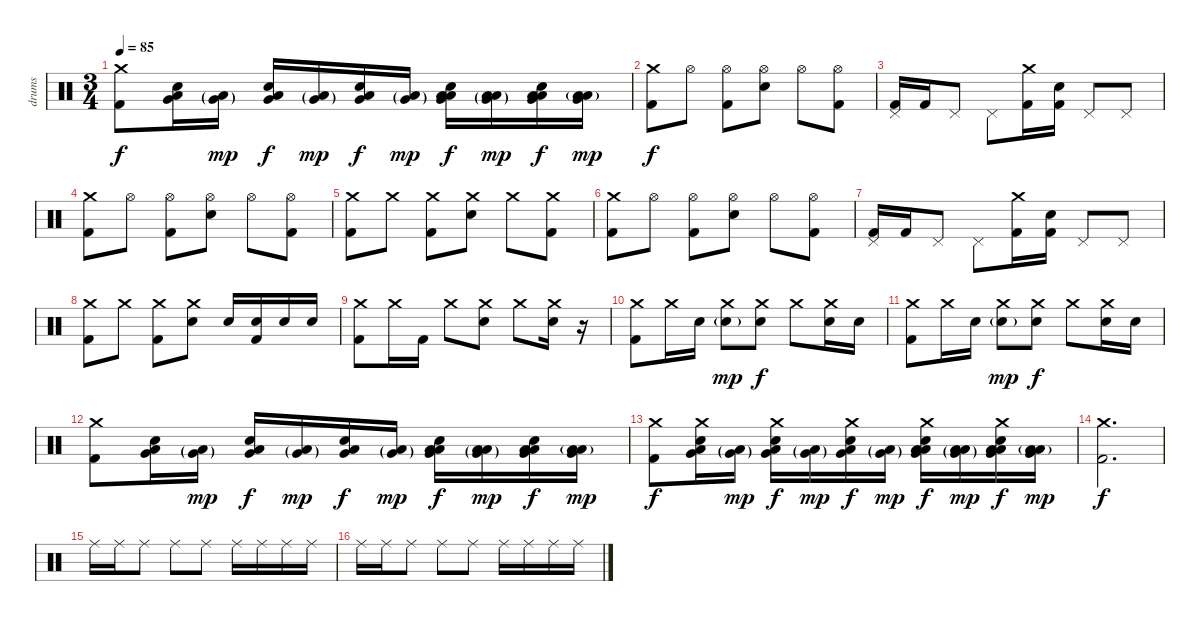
\track ("drums" "drums") {instrument percussion}
\staff {score}
\articulation defaults
\ts (3 4)
\tempo 85
\clef neutral
\ks c
("Crash medium (hit)" "Kick (hit) 2").8{dy f} ("Snare (hit) 2" "Low Floor Tom (hit)" "Very Low Tom (hit)").16 ("Low Floor Tom (hit)"{g} "Very Low Tom (hit)"{g}).16{dy mp} ("Snare (hit) 2" "Low Floor Tom (hit)" "Very Low Tom (hit)").16{dy f} ("Low Floor Tom (hit)"{g} "Very Low Tom (hit)"{g}).16{dy mp} ("Snare (hit) 2" "Low Floor Tom (hit)" "Very Low Tom (hit)").16{dy f} ("Low Floor Tom (hit)"{g} "Very Low Tom (hit)"{g}).16{dy mp} ("Snare (hit) 2" "Very Low Tom (hit)" "Low Floor Tom (hit)" "Low Tom (hit)").16{dy f} ("Very Low Tom (hit)"{g} "Low Floor Tom (hit)"{g} "Low Tom (hit)"{g}).16{dy mp} ("Snare (hit) 2" "Very Low Tom (hit)" "Low Floor Tom (hit)" "Low Tom (hit)").16{dy f} ("Very Low Tom (hit)" "Low Floor Tom (hit)"{g} "Low Tom (hit)"{g}).16{dy mp} |
("Crash medium (hit)" "Kick (hit) 2").8{dy f} "Hi-Hat (open)".8 ("Hi-Hat (open)" "Kick (hit) 2").8 ("Hi-Hat (open)" "Snare (hit) 2").8 "Hi-Hat (open)".8 ("Hi-Hat (open)" "Kick (hit) 2").8 |
("Pedal Hi-Hat (hit)" "Kick (hit) 2").16 "Kick (hit) 2".16 "Pedal Hi-Hat (hit)".8 "Pedal Hi-Hat (hit)".8 ("Crash medium (hit)" "Kick (hit) 2").16 ("Snare (hit) 2" "Kick (hit) 2").16 "Pedal Hi-Hat (hit)".8 "Pedal Hi-Hat (hit)".8 |
("Crash medium (hit)" "Kick (hit) 2").8 "Hi-Hat (open)".8 ("Hi-Hat (open)" "Kick (hit) 2").8 ("Hi-Hat (open)" "Snare (hit) 2").8 "Hi-Hat (open)".8 ("Hi-Hat (open)" "Kick (hit) 2").8 |
("Crash medium (hit)" "Kick (hit) 2").8 "Crash medium (hit)".8 ("Kick (hit) 2" "Crash medium (hit)").8 ("Snare (hit) 2" "Crash medium (hit)").8 "Crash medium (hit)".8 ("Kick (hit) 2" "Crash medium (hit)").8 |
("Crash medium (hit)" "Kick (hit) 2").8 "Hi-Hat (open)".8 ("Hi-Hat (open)" "Kick (hit) 2").8 ("Hi-Hat (open)" "Snare (hit) 2").8 "Hi-Hat (open)".8 ("Hi-Hat (open)" "Kick (hit) 2").8 |
("Pedal Hi-Hat (hit)" "Kick (hit) 2").16 "Kick (hit) 2".16 "Pedal Hi-Hat (hit)".8 "Pedal Hi-Hat (hit)".8 ("Crash medium (hit)" "Kick (hit) 2").16 ("Snare (hit) 2" "Kick (hit) 2").16 "Pedal Hi-Hat (hit)".8 "Pedal Hi-Hat (hit)".8 |
("Crash medium (hit)" "Kick (hit) 2").8 "Crash medium (hit)".8 ("Kick (hit) 2" "Crash medium (hit)").8 ("Snare (hit) 2" "Crash medium (hit)").8 "Snare (hit) 2".16 ("Kick (hit) 2" "Snare (hit) 2").16 "Snare (hit) 2".16 "Snare (hit) 2".16 |
("Crash medium (hit)" "Kick (hit) 2").8 "Crash medium (hit)".16 "Kick (hit) 2".16 "Crash medium (hit)".8 ("Crash medium (hit)" "Snare (hit) 2").8 "Crash medium (hit)".8 ("Crash medium (hit)" "Snare (hit) 2").16 r.16 |
("Crash medium (hit)" "Kick (hit) 2").8 "Crash medium (hit)".16 "Snare (hit) 2".16 ("Crash medium (hit)" "Snare (hit) 2"{g}).8{dy mp} ("Crash medium (hit)" "Snare (hit) 2").8{dy f} "Crash medium (hit)".8 ("Crash medium (hit)" "Snare (hit) 2").16 "Snare (hit) 2".16 |
("Crash medium (hit)" "Kick (hit) 2").8 "Crash medium (hit)".16 "Snare (hit) 2".16 ("Crash medium (hit)" "Snare (hit) 2"{g}).8{dy mp} ("Crash medium (hit)" "Snare (hit) 2").8{dy f} "Crash medium (hit)".8 ("Crash medium (hit)" "Snare (hit) 2").16 "Snare (hit) 2".16 |
("Crash medium (hit)" "Kick (hit) 2").8 ("Snare (hit) 2" "Low Floor Tom (hit)" "Very Low Tom (hit)").16 ("Low Floor Tom (hit)"{g} "Very Low Tom (hit)"{g}).16{dy mp} ("Snare (hit) 2" "Low Floor Tom (hit)" "Very Low Tom (hit)").16{dy f} ("Low Floor Tom (hit)"{g} "Very Low Tom (hit)"{g}).16{dy mp} ("Snare (hit) 2" "Low Floor Tom (hit)" "Very Low Tom (hit)").16{dy f} ("Low Floor Tom (hit)"{g} "Very Low Tom (hit)"{g}).16{dy mp} ("Snare (hit) 2" "Very Low Tom (hit)" "Low Floor Tom (hit)" "Low Tom (hit)").16{dy f} ("Very Low Tom (hit)"{g} "Low Floor Tom (hit)"{g} "Low Tom (hit)"{g}).16{dy mp} ("Snare (hit) 2" "Very Low Tom (hit)" "Low Floor Tom (hit)" "Low Tom (hit)").16{dy f} ("Very Low Tom (hit)" "Low Floor Tom (hit)"{g} "Low Tom (hit)"{g}).16{dy mp} |
("Crash medium (hit)" "Kick (hit) 2").8{dy f} ("Crash medium (hit)" "Snare (hit) 2" "Low Floor Tom (hit)" "Very Low Tom (hit)").16 ("Low Floor Tom (hit)"{g} "Very Low Tom (hit)"{g}).16{dy mp} ("Crash medium (hit)" "Snare (hit) 2" "Low Floor Tom (hit)" "Very Low Tom (hit)").16{dy f} ("Low Floor Tom (hit)"{g} "Very Low Tom (hit)"{g}).16{dy mp} ("Crash medium (hit)" "Snare (hit) 2" "Low Floor Tom (hit)" "Very Low Tom (hit)").16{dy f} ("Low Floor Tom (hit)"{g} "Very Low Tom (hit)"{g}).16{dy mp} ("Crash medium (hit)" "Snare (hit) 2" "Very Low Tom (hit)" "Low Floor Tom (hit)" "Low Tom (hit)").16{dy f} ("Very Low Tom (hit)"{g} "Low Floor Tom (hit)"{g} "Low Tom (hit)"{g}).16{dy mp} ("Crash medium (hit)" "Snare (hit) 2" "Very Low Tom (hit)" "Low Floor Tom (hit)" "Low Tom (hit)").16{dy f} ("Very Low Tom (hit)" "Low Floor Tom (hit)"{g} "Low Tom (hit)"{g}).16{dy mp} |
("Crash medium (hit)" "Kick (hit) 2").2{d dy f} |
"Ride (middle)".16 "Ride (middle)".16 "Ride (middle)".8 "Ride (middle)".8 "Ride (middle)".8 "Ride (middle)".16 "Ride (middle)".16 "Ride (middle)".16 "Ride (middle)".16 |
"Ride (middle)".16 "Ride (middle)".16 "Ride (middle)".8 "Ride (middle)".8 "Ride (middle)".8 "Ride (middle)".16 "Ride (middle)".16 "Ride (middle)".16 "Ride (middle)".16
